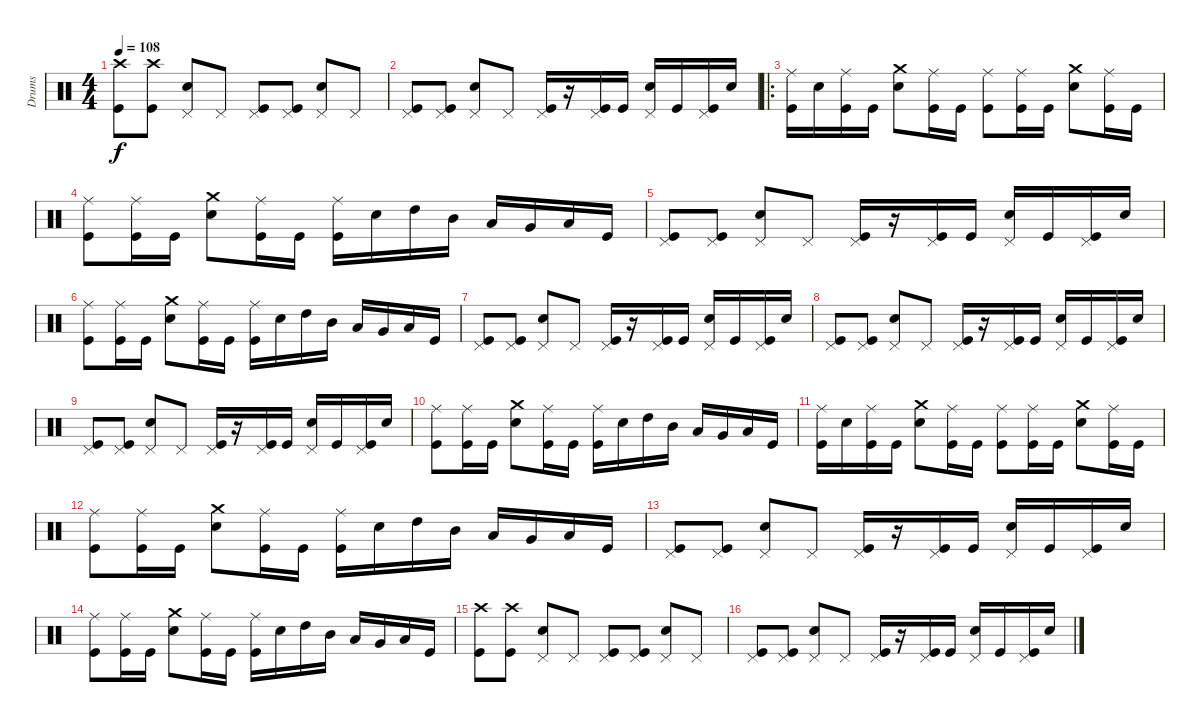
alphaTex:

\track ("Drums" "Drums") {instrument percussion}
\staff {score}
\articulation defaults
\ts (4 4)
\tempo 108
\clef neutral
\ks c
("Crash high (hit)" "Kick (hit)").8{dy f} ("Crash high (hit)" "Kick (hit)").8 ("Pedal Hi-Hat (hit)" "Electric Snare (hit)").8 "Pedal Hi-Hat (hit)".8 ("Pedal Hi-Hat (hit)" "Kick (hit)").8 ("Pedal Hi-Hat (hit)" "Kick (hit)").8 ("Pedal Hi-Hat (hit)" "Electric Snare (hit)").8 "Pedal Hi-Hat (hit)".8 |
("Pedal Hi-Hat (hit)" "Kick (hit)").8 ("Pedal Hi-Hat (hit)" "Kick (hit)").8 ("Pedal Hi-Hat (hit)" "Electric Snare (hit)").8 "Pedal Hi-Hat (hit)".8 ("Pedal Hi-Hat (hit)" "Kick (hit)").16 r.16 ("Pedal Hi-Hat (hit)" "Kick (hit)").16 "Kick (hit)".16 ("Pedal Hi-Hat (hit)" "Electric Snare (hit)").16 "Kick (hit)".16 ("Pedal Hi-Hat (hit)" "Kick (hit)").16 "Electric Snare (hit)".16 |
\ro
("Ride (middle)" "Kick (hit)").16 "Electric Snare (hit)".16 ("Ride (middle)" "Kick (hit)").16 "Kick (hit)".16 ("Crash medium (hit)" "Electric Snare (hit)").8 ("Ride (middle)" "Kick (hit)").16 "Kick (hit)".16 ("Ride (middle)" "Kick (hit)").8 ("Ride (middle)" "Kick (hit)").16 "Kick (hit)".16 ("Crash medium (hit)" "Electric Snare (hit)").8 ("Ride (middle)" "Kick (hit)").16 "Kick (hit)".16 |
("Ride (middle)" "Kick (hit)").8 ("Ride (middle)" "Kick (hit)").16 "Kick (hit)".16 ("Crash medium (hit)" "Electric Snare (hit)").8 ("Ride (middle)" "Kick (hit)").16 "Kick (hit)".16 ("Ride (middle)" "Kick (hit)").16 "Electric Snare (hit)".16 "High Tom (hit)".16 "Mid Tom (hit)".16 "Low Tom (hit)".16 "Very Low Tom (hit)".16 "Low Floor Tom (hit)".16 "Kick (hit)".16 |
("Pedal Hi-Hat (hit)" "Kick (hit)").8 ("Pedal Hi-Hat (hit)" "Kick (hit)").8 ("Pedal Hi-Hat (hit)" "Electric Snare (hit)").8 "Pedal Hi-Hat (hit)".8 ("Pedal Hi-Hat (hit)" "Kick (hit)").16 r.16 ("Pedal Hi-Hat (hit)" "Kick (hit)").16 "Kick (hit)".16 ("Pedal Hi-Hat (hit)" "Electric Snare (hit)").16 "Kick (hit)".16 ("Pedal Hi-Hat (hit)" "Kick (hit)").16 "Electric Snare (hit)".16 |
("Ride (middle)" "Kick (hit)").8 ("Ride (middle)" "Kick (hit)").16 "Kick (hit)".16 ("Crash medium (hit)" "Electric Snare (hit)").8 ("Ride (middle)" "Kick (hit)").16 "Kick (hit)".16 ("Ride (middle)" "Kick (hit)").16 "Electric Snare (hit)".16 "High Tom (hit)".16 "Mid Tom (hit)".16 "Low Tom (hit)".16 "Very Low Tom (hit)".16 "Low Floor Tom (hit)".16 "Kick (hit)".16 |
("Pedal Hi-Hat (hit)" "Kick (hit)").8 ("Pedal Hi-Hat (hit)" "Kick (hit)").8 ("Pedal Hi-Hat (hit)" "Electric Snare (hit)").8 "Pedal Hi-Hat (hit)".8 ("Pedal Hi-Hat (hit)" "Kick (hit)").16 r.16 ("Pedal Hi-Hat (hit)" "Kick (hit)").16 "Kick (hit)".16 ("Pedal Hi-Hat (hit)" "Electric Snare (hit)").16 "Kick (hit)".16 ("Pedal Hi-Hat (hit)" "Kick (hit)").16 "Electric Snare (hit)".16 |
("Pedal Hi-Hat (hit)" "Kick (hit)").8 ("Pedal Hi-Hat (hit)" "Kick (hit)").8 ("Pedal Hi-Hat (hit)" "Electric Snare (hit)").8 "Pedal Hi-Hat (hit)".8 ("Pedal Hi-Hat (hit)" "Kick (hit)").16 r.16 ("Pedal Hi-Hat (hit)" "Kick (hit)").16 "Kick (hit)".16 ("Pedal Hi-Hat (hit)" "Electric Snare (hit)").16 "Kick (hit)".16 ("Pedal Hi-Hat (hit)" "Kick (hit)").16 "Electric Snare (hit)".16 |
("Pedal Hi-Hat (hit)" "Kick (hit)").8 ("Pedal Hi-Hat (hit)" "Kick (hit)").8 ("Pedal Hi-Hat (hit)" "Electric Snare (hit)").8 "Pedal Hi-Hat (hit)".8 ("Pedal Hi-Hat (hit)" "Kick (hit)").16 r.16 ("Pedal Hi-Hat (hit)" "Kick (hit)").16 "Kick (hit)".16 ("Pedal Hi-Hat (hit)" "Electric Snare (hit)").16 "Kick (hit)".16 ("Pedal Hi-Hat (hit)" "Kick (hit)").16 "Electric Snare (hit)".16 |
("Ride (middle)" "Kick (hit)").8 ("Ride (middle)" "Kick (hit)").16 "Kick (hit)".16 ("Crash medium (hit)" "Electric Snare (hit)").8 ("Ride (middle)" "Kick (hit)").16 "Kick (hit)".16 ("Ride (middle)" "Kick (hit)").16 "Electric Snare (hit)".16 "High Tom (hit)".16 "Mid Tom (hit)".16 "Low Tom (hit)".16 "Very Low Tom (hit)".16 "Low Floor Tom (hit)".16 "Kick (hit)".16 |
("Ride (middle)" "Kick (hit)").16 "Electric Snare (hit)".16 ("Ride (middle)" "Kick (hit)").16 "Kick (hit)".16 ("Crash medium (hit)" "Electric Snare (hit)").8 ("Ride (middle)" "Kick (hit)").16 "Kick (hit)".16 ("Ride (middle)" "Kick (hit)").8 ("Ride (middle)" "Kick (hit)").16 "Kick (hit)".16 ("Crash medium (hit)" "Electric Snare (hit)").8 ("Ride (middle)" "Kick (hit)").16 "Kick (hit)".16 |
("Ride (middle)" "Kick (hit)").8 ("Ride (middle)" "Kick (hit)").16 "Kick (hit)".16 ("Crash medium (hit)" "Electric Snare (hit)").8 ("Ride (middle)" "Kick (hit)").16 "Kick (hit)".16 ("Ride (middle)" "Kick (hit)").16 "Electric Snare (hit)".16 "High Tom (hit)".16 "Mid Tom (hit)".16 "Low Tom (hit)".16 "Very Low Tom (hit)".16 "Low Floor Tom (hit)".16 "Kick (hit)".16 |
("Pedal Hi-Hat (hit)" "Kick (hit)").8 ("Pedal Hi-Hat (hit)" "Kick (hit)").8 ("Pedal Hi-Hat (hit)" "Electric Snare (hit)").8 "Pedal Hi-Hat (hit)".8 ("Pedal Hi-Hat (hit)" "Kick (hit)").16 r.16 ("Pedal Hi-Hat (hit)" "Kick (hit)").16 "Kick (hit)".16 ("Pedal Hi-Hat (hit)" "Electric Snare (hit)").16 "Kick (hit)".16 ("Pedal Hi-Hat (hit)" "Kick (hit)").16 "Electric Snare (hit)".16 |
("Ride (middle)" "Kick (hit)").8 ("Ride (middle)" "Kick (hit)").16 "Kick (hit)".16 ("Crash medium (hit)" "Electric Snare (hit)").8 ("Ride (middle)" "Kick (hit)").16 "Kick (hit)".16 ("Ride (middle)" "Kick (hit)").16 "Electric Snare (hit)".16 "High Tom (hit)".16 "Mid Tom (hit)".16 "Low Tom (hit)".16 "Very Low Tom (hit)".16 "Low Floor Tom (hit)".16 "Kick (hit)".16 |
("Crash high (hit)" "Kick (hit)").8 ("Crash high (hit)" "Kick (hit)").8 ("Pedal Hi-Hat (hit)" "Electric Snare (hit)").8 "Pedal Hi-Hat (hit)".8 ("Pedal Hi-Hat (hit)" "Kick (hit)").8 ("Pedal Hi-Hat (hit)" "Kick (hit)").8 ("Pedal Hi-Hat (hit)" "Electric Snare (hit)").8 "Pedal Hi-Hat (hit)".8 |
("Pedal Hi-Hat (hit)" "Kick (hit)").8 ("Pedal Hi-Hat (hit)" "Kick (hit)").8 ("Pedal Hi-Hat (hit)" "Electric Snare (hit)").8 "Pedal Hi-Hat (hit)".8 ("Pedal Hi-Hat (hit)" "Kick (hit)").16 r.16 ("Pedal Hi-Hat (hit)" "Kick (hit)").16 "Kick (hit)".16 ("Pedal Hi-Hat (hit)" "Electric Snare (hit)").16 "Kick (hit)".16 ("Pedal Hi-Hat (hit)" "Kick (hit)").16 "Electric Snare (hit)".16
